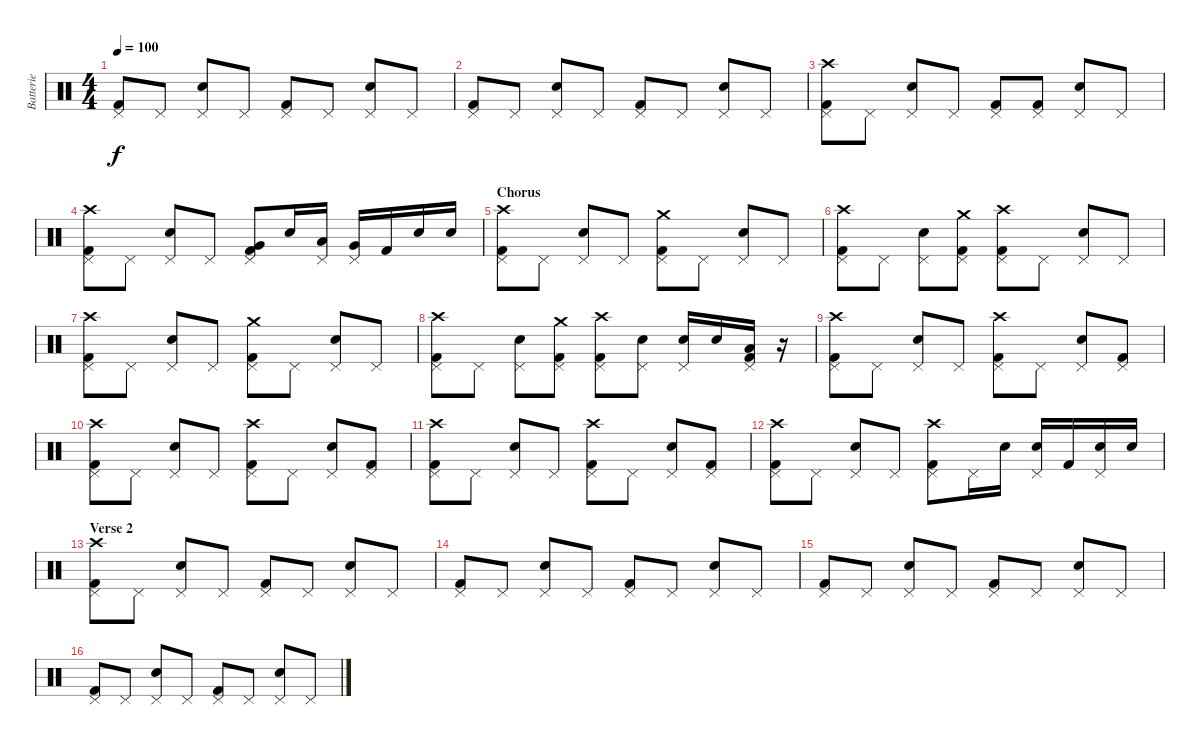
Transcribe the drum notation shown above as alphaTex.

\track ("Batterie" "Batterie") {instrument percussion}
\staff {score}
\articulation defaults
\ts (4 4)
\tempo 100
\clef neutral
\ks c
("Pedal Hi-Hat (hit)" "Kick (hit) 2").8{dy f} "Pedal Hi-Hat (hit)".8 ("Pedal Hi-Hat (hit)" "Snare (hit) 2").8 "Pedal Hi-Hat (hit)".8 ("Pedal Hi-Hat (hit)" "Kick (hit) 2").8 "Pedal Hi-Hat (hit)".8 ("Pedal Hi-Hat (hit)" "Snare (hit) 2").8 "Pedal Hi-Hat (hit)".8 |
("Pedal Hi-Hat (hit)" "Kick (hit) 2").8 "Pedal Hi-Hat (hit)".8 ("Pedal Hi-Hat (hit)" "Snare (hit) 2").8 "Pedal Hi-Hat (hit)".8 ("Pedal Hi-Hat (hit)" "Kick (hit) 2").8 "Pedal Hi-Hat (hit)".8 ("Pedal Hi-Hat (hit)" "Snare (hit) 2").8 "Pedal Hi-Hat (hit)".8 |
("Pedal Hi-Hat (hit)" "Crash high (hit)" "Kick (hit) 2").8 "Pedal Hi-Hat (hit)".8 ("Pedal Hi-Hat (hit)" "Snare (hit) 2").8 "Pedal Hi-Hat (hit)".8 ("Pedal Hi-Hat (hit)" "Kick (hit) 2").8 ("Pedal Hi-Hat (hit)" "Kick (hit) 2").8 ("Pedal Hi-Hat (hit)" "Snare (hit) 2").8 "Pedal Hi-Hat (hit)".8 |
("Pedal Hi-Hat (hit)" "Crash high (hit)" "Kick (hit) 2").8 "Pedal Hi-Hat (hit)".8 ("Pedal Hi-Hat (hit)" "Snare (hit) 2").8 "Pedal Hi-Hat (hit)".8 ("Pedal Hi-Hat (hit)" "Very Low Tom (hit)" "Kick (hit) 2").8 "Snare (hit) 2".16 ("Pedal Hi-Hat (hit)" "Low Tom (hit)").16 ("Pedal Hi-Hat (hit)" "Very Low Tom (hit)").16 "Kick (hit) 2".16 "Snare (hit) 2".16 "Snare (hit) 2".16 |
\section ("" "Chorus")
("Pedal Hi-Hat (hit)" "Crash high (hit)" "Kick (hit) 2").8 "Pedal Hi-Hat (hit)".8 ("Pedal Hi-Hat (hit)" "Snare (hit) 2").8 "Pedal Hi-Hat (hit)".8 ("Pedal Hi-Hat (hit)" "Crash medium (hit)" "Kick (hit) 2").8 "Pedal Hi-Hat (hit)".8 ("Pedal Hi-Hat (hit)" "Snare (hit) 2").8 "Pedal Hi-Hat (hit)".8 |
("Pedal Hi-Hat (hit)" "Crash high (hit)" "Kick (hit) 2").8 "Pedal Hi-Hat (hit)".8 ("Pedal Hi-Hat (hit)" "Snare (hit) 2").8 ("Pedal Hi-Hat (hit)" "Crash medium (hit)" "Kick (hit) 2").8 ("Pedal Hi-Hat (hit)" "Crash high (hit)" "Kick (hit) 2").8 "Pedal Hi-Hat (hit)".8 ("Pedal Hi-Hat (hit)" "Snare (hit) 2").8 "Pedal Hi-Hat (hit)".8 |
("Pedal Hi-Hat (hit)" "Crash high (hit)" "Kick (hit) 2").8 "Pedal Hi-Hat (hit)".8 ("Pedal Hi-Hat (hit)" "Snare (hit) 2").8 "Pedal Hi-Hat (hit)".8 ("Pedal Hi-Hat (hit)" "Crash medium (hit)" "Kick (hit) 2").8 "Pedal Hi-Hat (hit)".8 ("Pedal Hi-Hat (hit)" "Snare (hit) 2").8 "Pedal Hi-Hat (hit)".8 |
("Pedal Hi-Hat (hit)" "Crash high (hit)" "Kick (hit) 2").8 "Pedal Hi-Hat (hit)".8 ("Pedal Hi-Hat (hit)" "Snare (hit) 2").8 ("Pedal Hi-Hat (hit)" "Crash medium (hit)" "Kick (hit) 2").8 ("Pedal Hi-Hat (hit)" "Crash high (hit)" "Kick (hit) 2").8 ("Pedal Hi-Hat (hit)" "Snare (hit) 2").8 ("Pedal Hi-Hat (hit)" "Snare (hit) 2").16 "Snare (hit) 2".16 ("Pedal Hi-Hat (hit)" "Low Tom (hit)" "Kick (hit) 2").16 r.16 |
("Pedal Hi-Hat (hit)" "Crash high (hit)" "Kick (hit) 2").8 "Pedal Hi-Hat (hit)".8 ("Pedal Hi-Hat (hit)" "Snare (hit) 2").8 "Pedal Hi-Hat (hit)".8 ("Pedal Hi-Hat (hit)" "Crash high (hit)" "Kick (hit) 2").8 "Pedal Hi-Hat (hit)".8 ("Pedal Hi-Hat (hit)" "Snare (hit) 2").8 ("Pedal Hi-Hat (hit)" "Kick (hit) 2").8 |
("Pedal Hi-Hat (hit)" "Crash high (hit)" "Kick (hit) 2").8 "Pedal Hi-Hat (hit)".8 ("Pedal Hi-Hat (hit)" "Snare (hit) 2").8 "Pedal Hi-Hat (hit)".8 ("Pedal Hi-Hat (hit)" "Crash high (hit)" "Kick (hit) 2").8 "Pedal Hi-Hat (hit)".8 ("Pedal Hi-Hat (hit)" "Snare (hit) 2").8 ("Pedal Hi-Hat (hit)" "Kick (hit) 2").8 |
("Pedal Hi-Hat (hit)" "Crash high (hit)" "Kick (hit) 2").8 "Pedal Hi-Hat (hit)".8 ("Pedal Hi-Hat (hit)" "Snare (hit) 2").8 "Pedal Hi-Hat (hit)".8 ("Pedal Hi-Hat (hit)" "Crash high (hit)" "Kick (hit) 2").8 "Pedal Hi-Hat (hit)".8 ("Pedal Hi-Hat (hit)" "Snare (hit) 2").8 ("Pedal Hi-Hat (hit)" "Kick (hit) 2").8 |
("Pedal Hi-Hat (hit)" "Crash high (hit)" "Kick (hit) 2").8 "Pedal Hi-Hat (hit)".8 ("Pedal Hi-Hat (hit)" "Snare (hit) 2").8 "Pedal Hi-Hat (hit)".8 ("Pedal Hi-Hat (hit)" "Crash high (hit)" "Kick (hit) 2").8 "Pedal Hi-Hat (hit)".16 "Snare (hit) 2".16 ("Pedal Hi-Hat (hit)" "Snare (hit) 2").16 "Kick (hit) 2".16 ("Pedal Hi-Hat (hit)" "Snare (hit) 2").16 "Snare (hit) 2".16 |
\section ("" "Verse 2")
("Pedal Hi-Hat (hit)" "Crash high (hit)" "Kick (hit) 2").8 "Pedal Hi-Hat (hit)".8 ("Pedal Hi-Hat (hit)" "Snare (hit) 2").8 "Pedal Hi-Hat (hit)".8 ("Pedal Hi-Hat (hit)" "Kick (hit) 2").8 "Pedal Hi-Hat (hit)".8 ("Pedal Hi-Hat (hit)" "Snare (hit) 2").8 "Pedal Hi-Hat (hit)".8 |
("Pedal Hi-Hat (hit)" "Kick (hit) 2").8 "Pedal Hi-Hat (hit)".8 ("Pedal Hi-Hat (hit)" "Snare (hit) 2").8 "Pedal Hi-Hat (hit)".8 ("Pedal Hi-Hat (hit)" "Kick (hit) 2").8 "Pedal Hi-Hat (hit)".8 ("Pedal Hi-Hat (hit)" "Snare (hit) 2").8 "Pedal Hi-Hat (hit)".8 |
("Pedal Hi-Hat (hit)" "Kick (hit) 2").8 "Pedal Hi-Hat (hit)".8 ("Pedal Hi-Hat (hit)" "Snare (hit) 2").8 "Pedal Hi-Hat (hit)".8 ("Pedal Hi-Hat (hit)" "Kick (hit) 2").8 "Pedal Hi-Hat (hit)".8 ("Pedal Hi-Hat (hit)" "Snare (hit) 2").8 "Pedal Hi-Hat (hit)".8 |
("Pedal Hi-Hat (hit)" "Kick (hit) 2").8 "Pedal Hi-Hat (hit)".8 ("Pedal Hi-Hat (hit)" "Snare (hit) 2").8 "Pedal Hi-Hat (hit)".8 ("Pedal Hi-Hat (hit)" "Kick (hit) 2").8 "Pedal Hi-Hat (hit)".8 ("Pedal Hi-Hat (hit)" "Snare (hit) 2").8 "Pedal Hi-Hat (hit)".8
